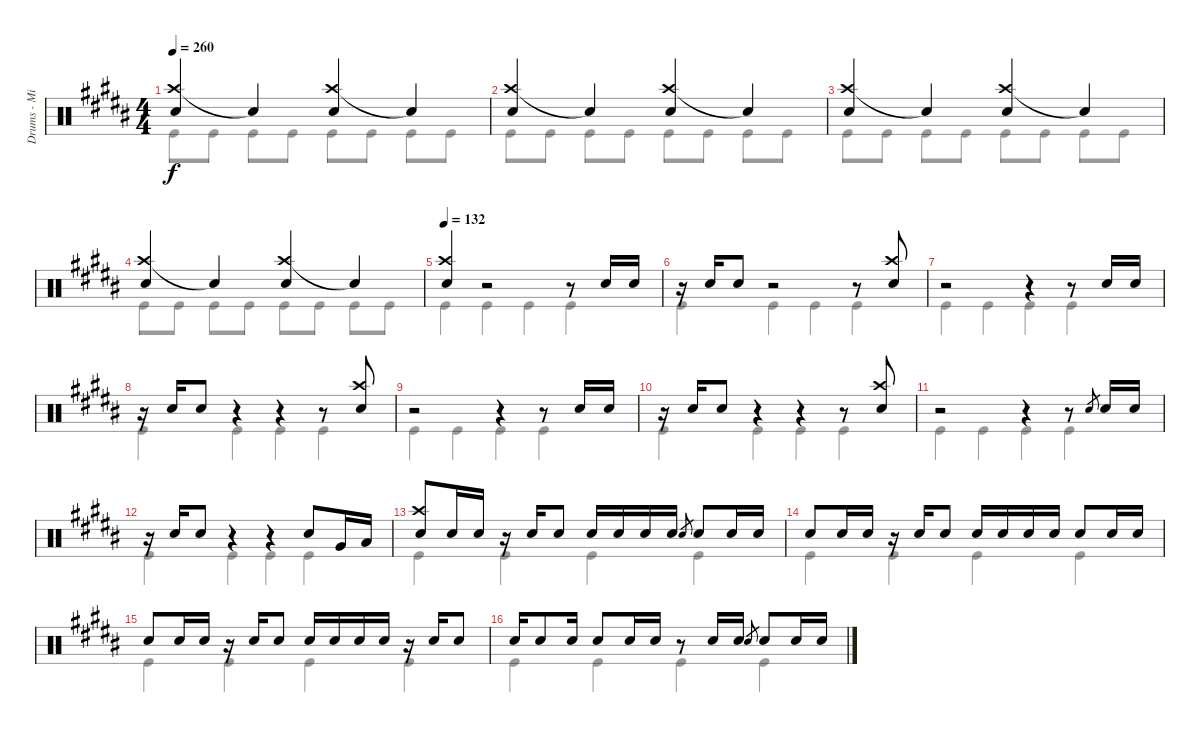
\track ("Drums - Mike Portnoy" "Drums - Mi") {instrument percussion}
\staff {score}
\articulation defaults
\voice
\ts (4 4)
\tempo 260
\clef neutral
\ks b
("Crash high (hit)" "Snare (hit) 2").4{dy f} "Snare (hit)"{t}.4 ("Crash high (hit)" "Snare (hit) 2").4 "Snare (hit)"{t}.4 |
("Crash high (hit)" "Snare (hit) 2").4 "Snare (hit)"{t}.4 ("Crash high (hit)" "Snare (hit) 2").4 "Snare (hit)"{t}.4 |
("Crash high (hit)" "Snare (hit) 2").4 "Snare (hit)"{t}.4 ("Crash high (hit)" "Snare (hit) 2").4 "Snare (hit)"{t}.4 |
("Crash high (hit)" "Snare (hit) 2").4 "Snare (hit)"{t}.4 ("Crash high (hit)" "Snare (hit) 2").4 "Snare (hit)"{t}.4 |
\tempo 132
("Crash high (hit)" "Snare (hit) 2").4 r.2 r.8 "Snare (hit) 2".16 "Snare (hit) 2".16 |
r.16 "Snare (hit) 2".16 "Snare (hit) 2".8 r.2 r.8 ("Crash high (hit)" "Snare (hit) 2").8 |
r.2 r.4 r.8 "Snare (hit) 2".16 "Snare (hit) 2".16 |
r.16 "Snare (hit) 2".16 "Snare (hit) 2".8 r.4 r.4 r.8 ("Crash high (hit)" "Snare (hit) 2").8 |
r.2 r.4 r.8 "Snare (hit) 2".16 "Snare (hit) 2".16 |
r.16 "Snare (hit) 2".16 "Snare (hit) 2".8 r.4 r.4 r.8 ("Crash high (hit)" "Snare (hit) 2").8 |
r.2 r.4 r.8 "Snare (hit) 2".8{gr} "Snare (hit) 2".16 "Snare (hit) 2".16 |
r.16 "Snare (hit) 2".16 "Snare (hit)".8 r.4 r.4 "Snare (hit) 2".8 "Very Low Tom (hit)".16 "Low Floor Tom (hit)".16 |
("Crash high (hit)" "Snare (hit) 2").8 "Snare (hit) 2".16 "Snare (hit) 2".16 r.16 "Snare (hit) 2".16 "Snare (hit) 2".8 "Snare (hit) 2".16 "Snare (hit) 2".16 "Snare (hit) 2".16 "Snare (hit) 2".16 "Snare (hit) 2".8{gr} "Snare (hit) 2".8 "Snare (hit) 2".16 "Snare (hit) 2".16 |
"Snare (hit) 2".8 "Snare (hit) 2".16 "Snare (hit) 2".16 r.16 "Snare (hit) 2".16 "Snare (hit) 2".8 "Snare (hit) 2".16 "Snare (hit) 2".16 "Snare (hit) 2".16 "Snare (hit) 2".16 "Snare (hit) 2".8 "Snare (hit) 2".16 "Snare (hit) 2".16 |
"Snare (hit) 2".8 "Snare (hit) 2".16 "Snare (hit) 2".16 r.16 "Snare (hit) 2".16 "Snare (hit) 2".8 "Snare (hit) 2".16 "Snare (hit) 2".16 "Snare (hit) 2".16 "Snare (hit) 2".16 r.16 "Snare (hit) 2".16 "Snare (hit) 2".8 |
"Snare (hit) 2".16 "Snare (hit) 2".8 "Snare (hit) 2".16 "Snare (hit) 2".8 "Snare (hit) 2".16 "Snare (hit) 2".16 r.8 "Snare (hit) 2".16 "Snare (hit) 2".16 "Snare (hit) 2".8{gr} "Snare (hit) 2".8 "Snare (hit) 2".16 "Snare (hit) 2".16
\voice
\clef neutral
\ottava regular
\simile none
\ks b "Kick (hit)".8{dy f} "Kick (hit)".8 "Kick (hit)".8 "Kick (hit)".8 "Kick (hit)".8 "Kick (hit)".8 "Kick (hit)".8 "Kick (hit)".8
|
"Kick (hit)".8 "Kick (hit)".8 "Kick (hit)".8 "Kick (hit)".8 "Kick (hit)".8 "Kick (hit)".8 "Kick (hit)".8 "Kick (hit)".8 |
"Kick (hit)".8 "Kick (hit)".8 "Kick (hit)".8 "Kick (hit)".8 "Kick (hit)".8 "Kick (hit)".8 "Kick (hit)".8 "Kick (hit)".8 |
"Kick (hit)".8 "Kick (hit)".8 "Kick (hit)".8 "Kick (hit)".8 "Kick (hit)".8 "Kick (hit)".8 "Kick (hit)".8 "Kick (hit)".8 |
"Kick (hit)".4 "Kick (hit)".4 "Kick (hit)".4 "Kick (hit)".4 |
"Kick (hit)".4 "Kick (hit)".4 "Kick (hit)".4 "Kick (hit)".4 |
"Kick (hit)".4 "Kick (hit)".4 "Kick (hit)".4 "Kick (hit)".4 |
"Kick (hit)".4 "Kick (hit)".4 "Kick (hit)".4 "Kick (hit)".4 |
"Kick (hit)".4 "Kick (hit)".4 "Kick (hit)".4 "Kick (hit)".4 |
"Kick (hit)".4 "Kick (hit)".4 "Kick (hit)".4 "Kick (hit)".4 |
"Kick (hit)".4 "Kick (hit)".4 "Kick (hit)".4 "Kick (hit)".4 |
"Kick (hit)".4 "Kick (hit)".4 "Kick (hit)".4 "Kick (hit)".4 |
"Kick (hit)".4 "Kick (hit)".4 "Kick (hit)".4 "Kick (hit)".4 |
"Kick (hit)".4 "Kick (hit)".4 "Kick (hit)".4 "Kick (hit)".4 |
"Kick (hit)".4 "Kick (hit)".4 "Kick (hit)".4 "Kick (hit)".4 |
"Kick (hit)".4 "Kick (hit)".4 "Kick (hit)".4 "Kick (hit)".4
